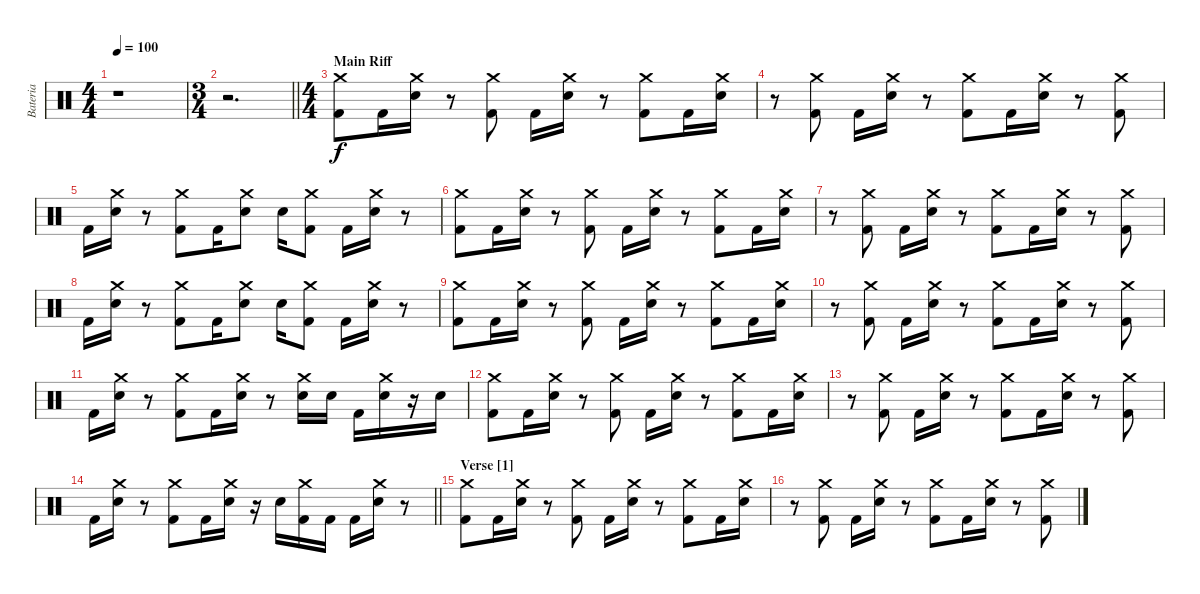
\track ("Bateria" "Bateria") {instrument percussion}
\staff {score}
\articulation defaults
\ts (4 4)
\tempo 100
\clef neutral
\ks c
r.1{dy f} |
\ts (3 4)
\barLineRight lightlight
r.2{d} |
\ts (4 4)
\section ("" "Main Riff")
("Crash medium (hit)" "Kick (hit) 2").8 "Kick (hit) 2".16 ("Crash medium (hit)" "Electric Snare (hit)").16 r.8 ("Crash medium (hit)" "Kick (hit) 2").8 "Kick (hit) 2".16 ("Crash medium (hit)" "Electric Snare (hit)").16 r.8 ("Crash medium (hit)" "Kick (hit) 2").8 "Kick (hit) 2".16 ("Crash medium (hit)" "Electric Snare (hit)").16 |
r.8 ("Crash medium (hit)" "Kick (hit) 2").8 "Kick (hit) 2".16 ("Crash medium (hit)" "Electric Snare (hit)").16 r.8 ("Crash medium (hit)" "Kick (hit) 2").8 "Kick (hit) 2".16 ("Crash medium (hit)" "Electric Snare (hit)").16 r.8 ("Crash medium (hit)" "Kick (hit) 2").8 |
"Kick (hit) 2".16 ("Crash medium (hit)" "Electric Snare (hit)").16 r.8 ("Crash medium (hit)" "Kick (hit) 2").8 "Kick (hit) 2".16 ("Crash medium (hit)" "Electric Snare (hit)").8 "Electric Snare (hit)".16 ("Crash medium (hit)" "Kick (hit) 2").8 "Kick (hit) 2".16 ("Crash medium (hit)" "Electric Snare (hit)").16 r.8 |
("Crash medium (hit)" "Kick (hit) 2").8 "Kick (hit) 2".16 ("Crash medium (hit)" "Electric Snare (hit)").16 r.8 ("Crash medium (hit)" "Kick (hit) 2").8 "Kick (hit) 2".16 ("Crash medium (hit)" "Electric Snare (hit)").16 r.8 ("Crash medium (hit)" "Kick (hit) 2").8 "Kick (hit) 2".16 ("Crash medium (hit)" "Electric Snare (hit)").16 |
r.8 ("Crash medium (hit)" "Kick (hit) 2").8 "Kick (hit) 2".16 ("Crash medium (hit)" "Electric Snare (hit)").16 r.8 ("Crash medium (hit)" "Kick (hit) 2").8 "Kick (hit) 2".16 ("Crash medium (hit)" "Electric Snare (hit)").16 r.8 ("Crash medium (hit)" "Kick (hit) 2").8 |
"Kick (hit) 2".16 ("Crash medium (hit)" "Electric Snare (hit)").16 r.8 ("Crash medium (hit)" "Kick (hit) 2").8 "Kick (hit) 2".16 ("Crash medium (hit)" "Electric Snare (hit)").8 "Electric Snare (hit)".16 ("Crash medium (hit)" "Kick (hit) 2").8 "Kick (hit) 2".16 ("Crash medium (hit)" "Electric Snare (hit)").16 r.8 |
("Crash medium (hit)" "Kick (hit) 2").8 "Kick (hit) 2".16 ("Crash medium (hit)" "Electric Snare (hit)").16 r.8 ("Crash medium (hit)" "Kick (hit) 2").8 "Kick (hit) 2".16 ("Crash medium (hit)" "Electric Snare (hit)").16 r.8 ("Crash medium (hit)" "Kick (hit) 2").8 "Kick (hit) 2".16 ("Crash medium (hit)" "Electric Snare (hit)").16 |
r.8 ("Crash medium (hit)" "Kick (hit) 2").8 "Kick (hit) 2".16 ("Crash medium (hit)" "Electric Snare (hit)").16 r.8 ("Crash medium (hit)" "Kick (hit) 2").8 "Kick (hit) 2".16 ("Crash medium (hit)" "Electric Snare (hit)").16 r.8 ("Crash medium (hit)" "Kick (hit) 2").8 |
"Kick (hit) 2".16 ("Crash medium (hit)" "Electric Snare (hit)").16 r.8 ("Crash medium (hit)" "Kick (hit) 2").8 "Kick (hit) 2".16 ("Crash medium (hit)" "Electric Snare (hit)").16 r.8 ("Crash medium (hit)" "Electric Snare (hit)").16 "Electric Snare (hit)".16 "Kick (hit) 2".16 ("Crash medium (hit)" "Electric Snare (hit)").16 r.16 "Electric Snare (hit)".16 |
("Crash medium (hit)" "Kick (hit) 2").8 "Kick (hit) 2".16 ("Crash medium (hit)" "Electric Snare (hit)").16 r.8 ("Crash medium (hit)" "Kick (hit) 2").8 "Kick (hit) 2".16 ("Crash medium (hit)" "Electric Snare (hit)").16 r.8 ("Crash medium (hit)" "Kick (hit) 2").8 "Kick (hit) 2".16 ("Crash medium (hit)" "Electric Snare (hit)").16 |
r.8 ("Crash medium (hit)" "Kick (hit) 2").8 "Kick (hit) 2".16 ("Crash medium (hit)" "Electric Snare (hit)").16 r.8 ("Crash medium (hit)" "Kick (hit) 2").8 "Kick (hit) 2".16 ("Crash medium (hit)" "Electric Snare (hit)").16 r.8 ("Crash medium (hit)" "Kick (hit) 2").8 |
\barLineRight lightlight "Kick (hit) 2".16
("Crash medium (hit)" "Electric Snare (hit)").16 r.8 ("Crash medium (hit)" "Kick (hit) 2").8 "Kick (hit) 2".16 ("Crash medium (hit)" "Electric Snare (hit)").16 r.16 "Electric Snare (hit)".16 ("Crash medium (hit)" "Kick (hit) 2").16 "Kick (hit) 2".16 "Kick (hit) 2".16 ("Crash medium (hit)" "Electric Snare (hit)").16 r.8 |
\section ("" "Verse [1]")
("Crash medium (hit)" "Kick (hit) 2").8 "Kick (hit) 2".16 ("Crash medium (hit)" "Electric Snare (hit)").16 r.8 ("Crash medium (hit)" "Kick (hit) 2").8 "Kick (hit) 2".16 ("Crash medium (hit)" "Electric Snare (hit)").16 r.8 ("Crash medium (hit)" "Kick (hit) 2").8 "Kick (hit) 2".16 ("Crash medium (hit)" "Electric Snare (hit)").16 |
r.8 ("Crash medium (hit)" "Kick (hit) 2").8 "Kick (hit) 2".16 ("Crash medium (hit)" "Electric Snare (hit)").16 r.8 ("Crash medium (hit)" "Kick (hit) 2").8 "Kick (hit) 2".16 ("Crash medium (hit)" "Electric Snare (hit)").16 r.8 ("Crash medium (hit)" "Kick (hit) 2").8
